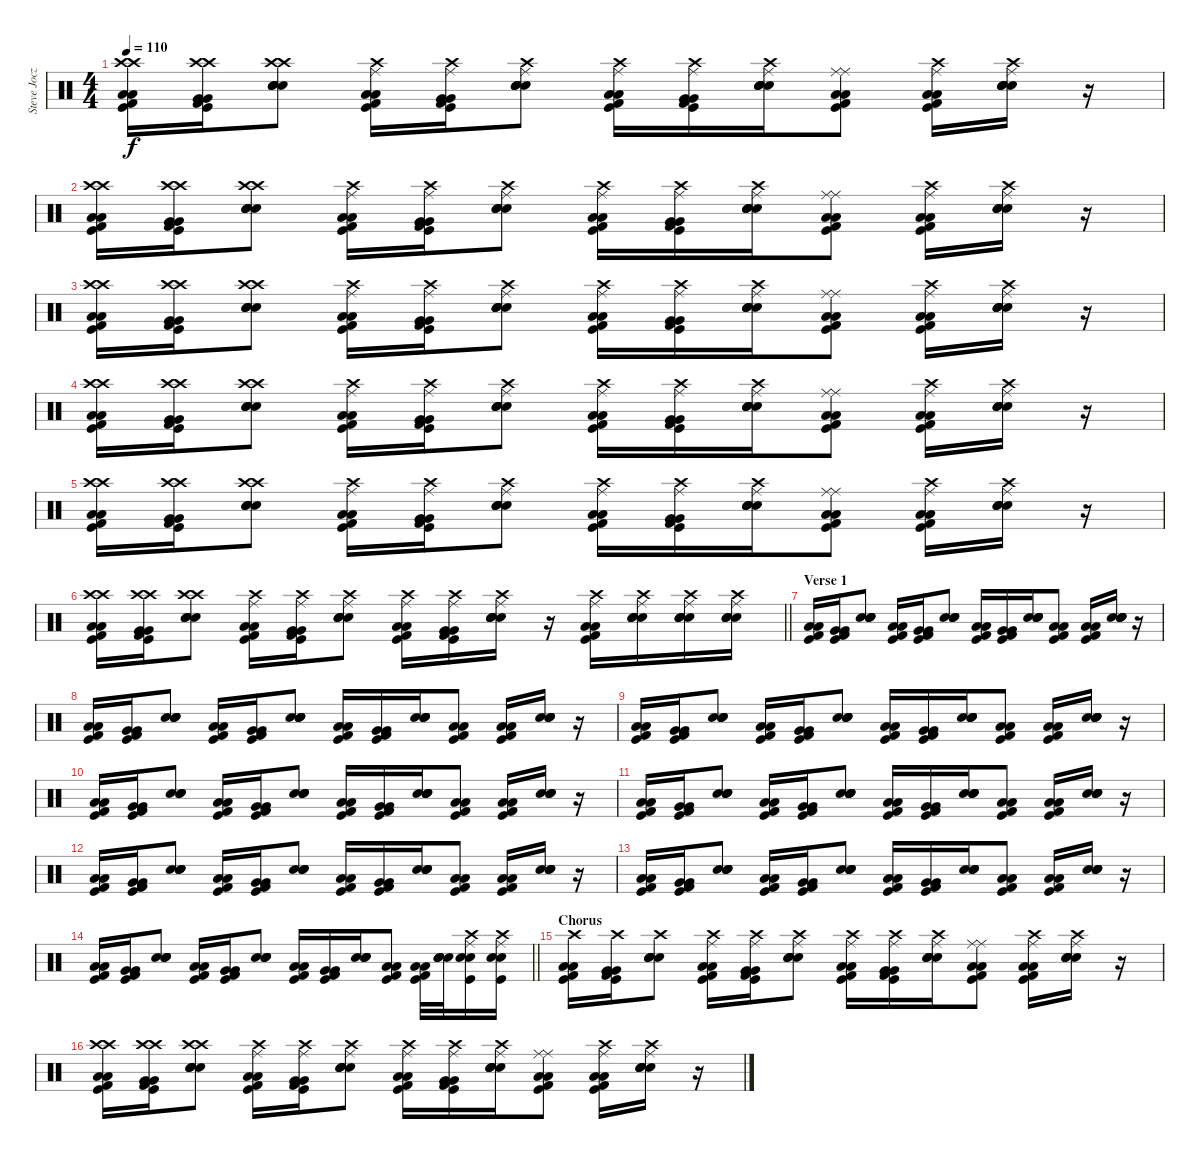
\track ("Steve Jocz" "Steve Jocz") {instrument percussion}
\staff {score}
\articulation defaults
\ts (4 4)
\tempo 110
\clef neutral
\ks c
("Low Floor Tom (hit)" "Crash high (hit)" "Low Floor Tom (hit)" "Kick (hit)" "Crash high (hit)" "Kick (hit) 2").16{dy f} ("Very Low Tom (hit)" "Crash high (hit)" "Very Low Tom (hit)" "Kick (hit)" "Crash high (hit)" "Kick (hit) 2").16 ("Snare (hit) 2" "Crash high (hit)" "Snare (hit) 2" "Electric Snare (hit)" "Crash high (hit)" "Electric Snare (hit)").8 ("Low Floor Tom (hit)" "Ride (middle)" "Low Floor Tom (hit)" "Kick (hit)" "Crash high (hit)" "Kick (hit) 2").16 ("Very Low Tom (hit)" "Ride (middle)" "Very Low Tom (hit)" "Kick (hit)" "Crash high (hit)" "Kick (hit) 2").16 ("Snare (hit) 2" "Ride (middle)" "Snare (hit) 2" "Electric Snare (hit)" "Crash high (hit)" "Electric Snare (hit)").8 ("Low Floor Tom (hit)" "Ride (middle)" "Low Floor Tom (hit)" "Kick (hit)" "Crash high (hit)" "Kick (hit) 2").16 ("Very Low Tom (hit)" "Ride (middle)" "Very Low Tom (hit)" "Kick (hit)" "Crash high (hit)" "Kick (hit) 2").16 ("Snare (hit) 2" "Ride (middle)" "Snare (hit) 2" "Electric Snare (hit)" "Crash high (hit)" "Electric Snare (hit)").16 ("Low Floor Tom (hit)" "Ride (middle)" "Low Floor Tom (hit)" "Kick (hit)" "Ride (middle)" "Kick (hit) 2").8 ("Low Floor Tom (hit)" "Ride (middle)" "Low Floor Tom (hit)" "Kick (hit)" "Crash high (hit)" "Kick (hit) 2").16 ("Snare (hit) 2" "Ride (middle)" "Snare (hit) 2" "Electric Snare (hit)" "Crash high (hit)" "Electric Snare (hit)").16 r.16 |
("Low Floor Tom (hit)" "Crash high (hit)" "Low Floor Tom (hit)" "Kick (hit)" "Crash high (hit)" "Kick (hit) 2").16 ("Very Low Tom (hit)" "Crash high (hit)" "Very Low Tom (hit)" "Kick (hit)" "Crash high (hit)" "Kick (hit) 2").16 ("Snare (hit) 2" "Crash high (hit)" "Snare (hit) 2" "Electric Snare (hit)" "Crash high (hit)" "Electric Snare (hit)").8 ("Low Floor Tom (hit)" "Ride (middle)" "Low Floor Tom (hit)" "Kick (hit)" "Crash high (hit)" "Kick (hit) 2").16 ("Very Low Tom (hit)" "Ride (middle)" "Very Low Tom (hit)" "Kick (hit)" "Crash high (hit)" "Kick (hit) 2").16 ("Snare (hit) 2" "Ride (middle)" "Snare (hit) 2" "Electric Snare (hit)" "Crash high (hit)" "Electric Snare (hit)").8 ("Low Floor Tom (hit)" "Ride (middle)" "Low Floor Tom (hit)" "Kick (hit)" "Crash high (hit)" "Kick (hit) 2").16 ("Very Low Tom (hit)" "Ride (middle)" "Very Low Tom (hit)" "Kick (hit)" "Crash high (hit)" "Kick (hit) 2").16 ("Snare (hit) 2" "Ride (middle)" "Snare (hit) 2" "Electric Snare (hit)" "Crash high (hit)" "Electric Snare (hit)").16 ("Low Floor Tom (hit)" "Ride (middle)" "Low Floor Tom (hit)" "Kick (hit)" "Ride (middle)" "Kick (hit) 2").8 ("Low Floor Tom (hit)" "Ride (middle)" "Low Floor Tom (hit)" "Kick (hit)" "Crash high (hit)" "Kick (hit) 2").16 ("Snare (hit) 2" "Ride (middle)" "Snare (hit) 2" "Electric Snare (hit)" "Crash high (hit)" "Electric Snare (hit)").16 r.16 |
("Low Floor Tom (hit)" "Crash high (hit)" "Low Floor Tom (hit)" "Kick (hit)" "Crash high (hit)" "Kick (hit) 2").16 ("Very Low Tom (hit)" "Crash high (hit)" "Very Low Tom (hit)" "Kick (hit)" "Crash high (hit)" "Kick (hit) 2").16 ("Snare (hit) 2" "Crash high (hit)" "Snare (hit) 2" "Electric Snare (hit)" "Crash high (hit)" "Electric Snare (hit)").8 ("Low Floor Tom (hit)" "Ride (middle)" "Low Floor Tom (hit)" "Kick (hit)" "Crash high (hit)" "Kick (hit) 2").16 ("Very Low Tom (hit)" "Ride (middle)" "Very Low Tom (hit)" "Kick (hit)" "Crash high (hit)" "Kick (hit) 2").16 ("Snare (hit) 2" "Ride (middle)" "Snare (hit) 2" "Electric Snare (hit)" "Crash high (hit)" "Electric Snare (hit)").8 ("Low Floor Tom (hit)" "Ride (middle)" "Low Floor Tom (hit)" "Kick (hit)" "Crash high (hit)" "Kick (hit) 2").16 ("Very Low Tom (hit)" "Ride (middle)" "Very Low Tom (hit)" "Kick (hit)" "Crash high (hit)" "Kick (hit) 2").16 ("Snare (hit) 2" "Ride (middle)" "Snare (hit) 2" "Electric Snare (hit)" "Crash high (hit)" "Electric Snare (hit)").16 ("Low Floor Tom (hit)" "Ride (middle)" "Low Floor Tom (hit)" "Kick (hit)" "Ride (middle)" "Kick (hit) 2").8 ("Low Floor Tom (hit)" "Ride (middle)" "Low Floor Tom (hit)" "Kick (hit)" "Crash high (hit)" "Kick (hit) 2").16 ("Snare (hit) 2" "Ride (middle)" "Snare (hit) 2" "Electric Snare (hit)" "Crash high (hit)" "Electric Snare (hit)").16 r.16 |
("Low Floor Tom (hit)" "Crash high (hit)" "Low Floor Tom (hit)" "Kick (hit)" "Crash high (hit)" "Kick (hit) 2").16 ("Very Low Tom (hit)" "Crash high (hit)" "Very Low Tom (hit)" "Kick (hit)" "Crash high (hit)" "Kick (hit) 2").16 ("Snare (hit) 2" "Crash high (hit)" "Snare (hit) 2" "Electric Snare (hit)" "Crash high (hit)" "Electric Snare (hit)").8 ("Low Floor Tom (hit)" "Ride (middle)" "Low Floor Tom (hit)" "Kick (hit)" "Crash high (hit)" "Kick (hit) 2").16 ("Very Low Tom (hit)" "Ride (middle)" "Very Low Tom (hit)" "Kick (hit)" "Crash high (hit)" "Kick (hit) 2").16 ("Snare (hit) 2" "Ride (middle)" "Snare (hit) 2" "Electric Snare (hit)" "Crash high (hit)" "Electric Snare (hit)").8 ("Low Floor Tom (hit)" "Ride (middle)" "Low Floor Tom (hit)" "Kick (hit)" "Crash high (hit)" "Kick (hit) 2").16 ("Very Low Tom (hit)" "Ride (middle)" "Very Low Tom (hit)" "Kick (hit)" "Crash high (hit)" "Kick (hit) 2").16 ("Snare (hit) 2" "Ride (middle)" "Snare (hit) 2" "Electric Snare (hit)" "Crash high (hit)" "Electric Snare (hit)").16 ("Low Floor Tom (hit)" "Ride (middle)" "Low Floor Tom (hit)" "Kick (hit)" "Ride (middle)" "Kick (hit) 2").8 ("Low Floor Tom (hit)" "Ride (middle)" "Low Floor Tom (hit)" "Kick (hit)" "Crash high (hit)" "Kick (hit) 2").16 ("Snare (hit) 2" "Ride (middle)" "Snare (hit) 2" "Electric Snare (hit)" "Crash high (hit)" "Electric Snare (hit)").16 r.16 |
("Low Floor Tom (hit)" "Crash high (hit)" "Low Floor Tom (hit)" "Kick (hit)" "Crash high (hit)" "Kick (hit) 2").16 ("Very Low Tom (hit)" "Crash high (hit)" "Very Low Tom (hit)" "Kick (hit)" "Crash high (hit)" "Kick (hit) 2").16 ("Snare (hit) 2" "Crash high (hit)" "Snare (hit) 2" "Electric Snare (hit)" "Crash high (hit)" "Electric Snare (hit)").8 ("Low Floor Tom (hit)" "Ride (middle)" "Low Floor Tom (hit)" "Kick (hit)" "Crash high (hit)" "Kick (hit) 2").16 ("Very Low Tom (hit)" "Ride (middle)" "Very Low Tom (hit)" "Kick (hit)" "Crash high (hit)" "Kick (hit) 2").16 ("Snare (hit) 2" "Ride (middle)" "Snare (hit) 2" "Electric Snare (hit)" "Crash high (hit)" "Electric Snare (hit)").8 ("Low Floor Tom (hit)" "Ride (middle)" "Low Floor Tom (hit)" "Kick (hit)" "Crash high (hit)" "Kick (hit) 2").16 ("Very Low Tom (hit)" "Ride (middle)" "Very Low Tom (hit)" "Kick (hit)" "Crash high (hit)" "Kick (hit) 2").16 ("Snare (hit) 2" "Ride (middle)" "Snare (hit) 2" "Electric Snare (hit)" "Crash high (hit)" "Electric Snare (hit)").16 ("Low Floor Tom (hit)" "Ride (middle)" "Low Floor Tom (hit)" "Kick (hit)" "Ride (middle)" "Kick (hit) 2").8 ("Low Floor Tom (hit)" "Ride (middle)" "Low Floor Tom (hit)" "Kick (hit)" "Crash high (hit)" "Kick (hit) 2").16 ("Snare (hit) 2" "Ride (middle)" "Snare (hit) 2" "Electric Snare (hit)" "Crash high (hit)" "Electric Snare (hit)").16 r.16 |
\barLineRight lightlight
("Low Floor Tom (hit)" "Crash high (hit)" "Low Floor Tom (hit)" "Kick (hit)" "Crash high (hit)" "Kick (hit) 2").16 ("Very Low Tom (hit)" "Crash high (hit)" "Very Low Tom (hit)" "Kick (hit)" "Crash high (hit)" "Kick (hit) 2").16 ("Snare (hit) 2" "Crash high (hit)" "Snare (hit) 2" "Electric Snare (hit)" "Crash high (hit)" "Electric Snare (hit)").8 ("Low Floor Tom (hit)" "Ride (middle)" "Low Floor Tom (hit)" "Kick (hit)" "Crash high (hit)" "Kick (hit) 2").16 ("Very Low Tom (hit)" "Ride (middle)" "Very Low Tom (hit)" "Kick (hit)" "Crash high (hit)" "Kick (hit) 2").16 ("Snare (hit) 2" "Ride (middle)" "Snare (hit) 2" "Electric Snare (hit)" "Crash high (hit)" "Electric Snare (hit)").8 ("Low Floor Tom (hit)" "Ride (middle)" "Low Floor Tom (hit)" "Kick (hit)" "Crash high (hit)" "Kick (hit) 2").16 ("Very Low Tom (hit)" "Ride (middle)" "Very Low Tom (hit)" "Kick (hit)" "Crash high (hit)" "Kick (hit) 2").16 ("Snare (hit) 2" "Ride (middle)" "Snare (hit) 2" "Electric Snare (hit)" "Crash high (hit)" "Electric Snare (hit)").16 r.16 ("Low Floor Tom (hit)" "Ride (middle)" "Low Floor Tom (hit)" "Kick (hit)" "Crash high (hit)" "Kick (hit) 2").16 ("Snare (hit) 2" "Ride (middle)" "Snare (hit) 2" "Electric Snare (hit)" "Crash high (hit)" "Electric Snare (hit)").16 ("Snare (hit) 2" "Ride (middle)" "Snare (hit) 2" "Electric Snare (hit)" "Crash high (hit)" "Electric Snare (hit)").16 ("Snare (hit) 2" "Ride (middle)" "Snare (hit) 2" "Electric Snare (hit)" "Crash high (hit)" "Electric Snare (hit)").16 |
\section ("" "Verse 1")
("Low Floor Tom (hit)" "Low Floor Tom (hit)" "Kick (hit)" "Kick (hit) 2").16 ("Very Low Tom (hit)" "Very Low Tom (hit)" "Kick (hit)" "Kick (hit) 2").16 ("Snare (hit) 2" "Snare (hit) 2" "Electric Snare (hit)" "Electric Snare (hit)").8 ("Low Floor Tom (hit)" "Low Floor Tom (hit)" "Kick (hit)" "Kick (hit) 2").16 ("Very Low Tom (hit)" "Very Low Tom (hit)" "Kick (hit)" "Kick (hit) 2").16 ("Snare (hit) 2" "Snare (hit) 2" "Electric Snare (hit)" "Electric Snare (hit)").8 ("Low Floor Tom (hit)" "Low Floor Tom (hit)" "Kick (hit)" "Kick (hit) 2").16 ("Very Low Tom (hit)" "Very Low Tom (hit)" "Kick (hit)" "Kick (hit) 2").16 ("Snare (hit) 2" "Snare (hit) 2" "Electric Snare (hit)" "Electric Snare (hit)").16 ("Low Floor Tom (hit)" "Low Floor Tom (hit)" "Kick (hit)" "Kick (hit) 2").8 ("Low Floor Tom (hit)" "Low Floor Tom (hit)" "Kick (hit)" "Kick (hit) 2").16 ("Snare (hit) 2" "Snare (hit) 2" "Electric Snare (hit)" "Electric Snare (hit)").16 r.16 |
("Low Floor Tom (hit)" "Low Floor Tom (hit)" "Kick (hit)" "Kick (hit) 2").16 ("Very Low Tom (hit)" "Very Low Tom (hit)" "Kick (hit)" "Kick (hit) 2").16 ("Snare (hit) 2" "Snare (hit) 2" "Electric Snare (hit)" "Electric Snare (hit)").8 ("Low Floor Tom (hit)" "Low Floor Tom (hit)" "Kick (hit)" "Kick (hit) 2").16 ("Very Low Tom (hit)" "Very Low Tom (hit)" "Kick (hit)" "Kick (hit) 2").16 ("Snare (hit) 2" "Snare (hit) 2" "Electric Snare (hit)" "Electric Snare (hit)").8 ("Low Floor Tom (hit)" "Low Floor Tom (hit)" "Kick (hit)" "Kick (hit) 2").16 ("Very Low Tom (hit)" "Very Low Tom (hit)" "Kick (hit)" "Kick (hit) 2").16 ("Snare (hit) 2" "Snare (hit) 2" "Electric Snare (hit)" "Electric Snare (hit)").16 ("Low Floor Tom (hit)" "Low Floor Tom (hit)" "Kick (hit)" "Kick (hit) 2").8 ("Low Floor Tom (hit)" "Low Floor Tom (hit)" "Kick (hit)" "Kick (hit) 2").16 ("Snare (hit) 2" "Snare (hit) 2" "Electric Snare (hit)" "Electric Snare (hit)").16 r.16 |
("Low Floor Tom (hit)" "Low Floor Tom (hit)" "Kick (hit)" "Kick (hit) 2").16 ("Very Low Tom (hit)" "Very Low Tom (hit)" "Kick (hit)" "Kick (hit) 2").16 ("Snare (hit) 2" "Snare (hit) 2" "Electric Snare (hit)" "Electric Snare (hit)").8 ("Low Floor Tom (hit)" "Low Floor Tom (hit)" "Kick (hit)" "Kick (hit) 2").16 ("Very Low Tom (hit)" "Very Low Tom (hit)" "Kick (hit)" "Kick (hit) 2").16 ("Snare (hit) 2" "Snare (hit) 2" "Electric Snare (hit)" "Electric Snare (hit)").8 ("Low Floor Tom (hit)" "Low Floor Tom (hit)" "Kick (hit)" "Kick (hit) 2").16 ("Very Low Tom (hit)" "Very Low Tom (hit)" "Kick (hit)" "Kick (hit) 2").16 ("Snare (hit) 2" "Snare (hit) 2" "Electric Snare (hit)" "Electric Snare (hit)").16 ("Low Floor Tom (hit)" "Low Floor Tom (hit)" "Kick (hit)" "Kick (hit) 2").8 ("Low Floor Tom (hit)" "Low Floor Tom (hit)" "Kick (hit)" "Kick (hit) 2").16 ("Snare (hit) 2" "Snare (hit) 2" "Electric Snare (hit)" "Electric Snare (hit)").16 r.16 |
("Low Floor Tom (hit)" "Low Floor Tom (hit)" "Kick (hit)" "Kick (hit) 2").16 ("Very Low Tom (hit)" "Very Low Tom (hit)" "Kick (hit)" "Kick (hit) 2").16 ("Snare (hit) 2" "Snare (hit) 2" "Electric Snare (hit)" "Electric Snare (hit)").8 ("Low Floor Tom (hit)" "Low Floor Tom (hit)" "Kick (hit)" "Kick (hit) 2").16 ("Very Low Tom (hit)" "Very Low Tom (hit)" "Kick (hit)" "Kick (hit) 2").16 ("Snare (hit) 2" "Snare (hit) 2" "Electric Snare (hit)" "Electric Snare (hit)").8 ("Low Floor Tom (hit)" "Low Floor Tom (hit)" "Kick (hit)" "Kick (hit) 2").16 ("Very Low Tom (hit)" "Very Low Tom (hit)" "Kick (hit)" "Kick (hit) 2").16 ("Snare (hit) 2" "Snare (hit) 2" "Electric Snare (hit)" "Electric Snare (hit)").16 ("Low Floor Tom (hit)" "Low Floor Tom (hit)" "Kick (hit)" "Kick (hit) 2").8 ("Low Floor Tom (hit)" "Low Floor Tom (hit)" "Kick (hit)" "Kick (hit) 2").16 ("Snare (hit) 2" "Snare (hit) 2" "Electric Snare (hit)" "Electric Snare (hit)").16 r.16 |
("Low Floor Tom (hit)" "Low Floor Tom (hit)" "Kick (hit)" "Kick (hit) 2").16 ("Very Low Tom (hit)" "Very Low Tom (hit)" "Kick (hit)" "Kick (hit) 2").16 ("Snare (hit) 2" "Snare (hit) 2" "Electric Snare (hit)" "Electric Snare (hit)").8 ("Low Floor Tom (hit)" "Low Floor Tom (hit)" "Kick (hit)" "Kick (hit) 2").16 ("Very Low Tom (hit)" "Very Low Tom (hit)" "Kick (hit)" "Kick (hit) 2").16 ("Snare (hit) 2" "Snare (hit) 2" "Electric Snare (hit)" "Electric Snare (hit)").8 ("Low Floor Tom (hit)" "Low Floor Tom (hit)" "Kick (hit)" "Kick (hit) 2").16 ("Very Low Tom (hit)" "Very Low Tom (hit)" "Kick (hit)" "Kick (hit) 2").16 ("Snare (hit) 2" "Snare (hit) 2" "Electric Snare (hit)" "Electric Snare (hit)").16 ("Low Floor Tom (hit)" "Low Floor Tom (hit)" "Kick (hit)" "Kick (hit) 2").8 ("Low Floor Tom (hit)" "Low Floor Tom (hit)" "Kick (hit)" "Kick (hit) 2").16 ("Snare (hit) 2" "Snare (hit) 2" "Electric Snare (hit)" "Electric Snare (hit)").16 r.16 |
("Low Floor Tom (hit)" "Low Floor Tom (hit)" "Kick (hit)" "Kick (hit) 2").16 ("Very Low Tom (hit)" "Very Low Tom (hit)" "Kick (hit)" "Kick (hit) 2").16 ("Snare (hit) 2" "Snare (hit) 2" "Electric Snare (hit)" "Electric Snare (hit)").8 ("Low Floor Tom (hit)" "Low Floor Tom (hit)" "Kick (hit)" "Kick (hit) 2").16 ("Very Low Tom (hit)" "Very Low Tom (hit)" "Kick (hit)" "Kick (hit) 2").16 ("Snare (hit) 2" "Snare (hit) 2" "Electric Snare (hit)" "Electric Snare (hit)").8 ("Low Floor Tom (hit)" "Low Floor Tom (hit)" "Kick (hit)" "Kick (hit) 2").16 ("Very Low Tom (hit)" "Very Low Tom (hit)" "Kick (hit)" "Kick (hit) 2").16 ("Snare (hit) 2" "Snare (hit) 2" "Electric Snare (hit)" "Electric Snare (hit)").16 ("Low Floor Tom (hit)" "Low Floor Tom (hit)" "Kick (hit)" "Kick (hit) 2").8 ("Low Floor Tom (hit)" "Low Floor Tom (hit)" "Kick (hit)" "Kick (hit) 2").16 ("Snare (hit) 2" "Snare (hit) 2" "Electric Snare (hit)" "Electric Snare (hit)").16 r.16 |
("Low Floor Tom (hit)" "Low Floor Tom (hit)" "Kick (hit)" "Kick (hit) 2").16 ("Very Low Tom (hit)" "Very Low Tom (hit)" "Kick (hit)" "Kick (hit) 2").16 ("Snare (hit) 2" "Snare (hit) 2" "Electric Snare (hit)" "Electric Snare (hit)").8 ("Low Floor Tom (hit)" "Low Floor Tom (hit)" "Kick (hit)" "Kick (hit) 2").16 ("Very Low Tom (hit)" "Very Low Tom (hit)" "Kick (hit)" "Kick (hit) 2").16 ("Snare (hit) 2" "Snare (hit) 2" "Electric Snare (hit)" "Electric Snare (hit)").8 ("Low Floor Tom (hit)" "Low Floor Tom (hit)" "Kick (hit)" "Kick (hit) 2").16 ("Very Low Tom (hit)" "Very Low Tom (hit)" "Kick (hit)" "Kick (hit) 2").16 ("Snare (hit) 2" "Snare (hit) 2" "Electric Snare (hit)" "Electric Snare (hit)").16 ("Low Floor Tom (hit)" "Low Floor Tom (hit)" "Kick (hit)" "Kick (hit) 2").8 ("Low Floor Tom (hit)" "Low Floor Tom (hit)" "Kick (hit)" "Kick (hit) 2").16 ("Snare (hit) 2" "Snare (hit) 2" "Electric Snare (hit)" "Electric Snare (hit)").16 r.16 |
\barLineRight lightlight
("Low Floor Tom (hit)" "Low Floor Tom (hit)" "Kick (hit)" "Kick (hit) 2").16 ("Very Low Tom (hit)" "Very Low Tom (hit)" "Kick (hit)" "Kick (hit) 2").16 ("Snare (hit) 2" "Snare (hit) 2" "Electric Snare (hit)" "Electric Snare (hit)").8 ("Low Floor Tom (hit)" "Low Floor Tom (hit)" "Kick (hit)" "Kick (hit) 2").16 ("Very Low Tom (hit)" "Very Low Tom (hit)" "Kick (hit)" "Kick (hit) 2").16 ("Snare (hit) 2" "Snare (hit) 2" "Electric Snare (hit)" "Electric Snare (hit)").8 ("Low Floor Tom (hit)" "Low Floor Tom (hit)" "Kick (hit)" "Kick (hit) 2").16 ("Very Low Tom (hit)" "Very Low Tom (hit)" "Kick (hit)" "Kick (hit) 2").16 ("Snare (hit) 2" "Snare (hit) 2" "Electric Snare (hit)" "Electric Snare (hit)").16 ("Low Floor Tom (hit)" "Low Floor Tom (hit)" "Kick (hit)" "Kick (hit) 2").8 ("Low Floor Tom (hit)" "Low Floor Tom (hit)" "Kick (hit)" "Kick (hit) 2").32 ("Snare (hit) 2" "Snare (hit) 2" "Electric Snare (hit)" "Electric Snare (hit)").32 ("Snare (hit) 2" "Kick (hit)" "Electric Snare (hit)" "Crash high (hit)" "Ride (middle)").16 ("Snare (hit) 2" "Kick (hit)" "Electric Snare (hit)" "Crash high (hit)" "Ride (middle)").16 |
\section ("" "Chorus ")
("Low Floor Tom (hit)" "Crash high (hit)" "Low Floor Tom (hit)" "Kick (hit)" "Kick (hit) 2").16 ("Very Low Tom (hit)" "Crash high (hit)" "Very Low Tom (hit)" "Kick (hit)" "Kick (hit) 2").16 ("Snare (hit) 2" "Crash high (hit)" "Snare (hit) 2" "Electric Snare (hit)" "Electric Snare (hit)").8 ("Low Floor Tom (hit)" "Ride (middle)" "Low Floor Tom (hit)" "Kick (hit)" "Crash high (hit)" "Kick (hit) 2").16 ("Very Low Tom (hit)" "Ride (middle)" "Very Low Tom (hit)" "Kick (hit)" "Crash high (hit)" "Kick (hit) 2").16 ("Snare (hit) 2" "Ride (middle)" "Snare (hit) 2" "Electric Snare (hit)" "Crash high (hit)" "Electric Snare (hit)").8 ("Low Floor Tom (hit)" "Ride (middle)" "Low Floor Tom (hit)" "Kick (hit)" "Crash high (hit)" "Kick (hit) 2").16 ("Very Low Tom (hit)" "Ride (middle)" "Very Low Tom (hit)" "Kick (hit)" "Crash high (hit)" "Kick (hit) 2").16 ("Snare (hit) 2" "Ride (middle)" "Snare (hit) 2" "Electric Snare (hit)" "Crash high (hit)" "Electric Snare (hit)").16 ("Low Floor Tom (hit)" "Ride (middle)" "Low Floor Tom (hit)" "Kick (hit)" "Ride (middle)" "Kick (hit) 2").8 ("Low Floor Tom (hit)" "Ride (middle)" "Low Floor Tom (hit)" "Kick (hit)" "Crash high (hit)" "Kick (hit) 2").16 ("Snare (hit) 2" "Ride (middle)" "Snare (hit) 2" "Electric Snare (hit)" "Crash high (hit)" "Electric Snare (hit)").16 r.16 |
("Low Floor Tom (hit)" "Crash high (hit)" "Low Floor Tom (hit)" "Kick (hit)" "Crash high (hit)" "Kick (hit) 2").16 ("Very Low Tom (hit)" "Crash high (hit)" "Very Low Tom (hit)" "Kick (hit)" "Crash high (hit)" "Kick (hit) 2").16 ("Snare (hit) 2" "Crash high (hit)" "Snare (hit) 2" "Electric Snare (hit)" "Crash high (hit)" "Electric Snare (hit)").8 ("Low Floor Tom (hit)" "Ride (middle)" "Low Floor Tom (hit)" "Kick (hit)" "Crash high (hit)" "Kick (hit) 2").16 ("Very Low Tom (hit)" "Ride (middle)" "Very Low Tom (hit)" "Kick (hit)" "Crash high (hit)" "Kick (hit) 2").16 ("Snare (hit) 2" "Ride (middle)" "Snare (hit) 2" "Electric Snare (hit)" "Crash high (hit)" "Electric Snare (hit)").8 ("Low Floor Tom (hit)" "Ride (middle)" "Low Floor Tom (hit)" "Kick (hit)" "Crash high (hit)" "Kick (hit) 2").16 ("Very Low Tom (hit)" "Ride (middle)" "Very Low Tom (hit)" "Kick (hit)" "Crash high (hit)" "Kick (hit) 2").16 ("Snare (hit) 2" "Ride (middle)" "Snare (hit) 2" "Electric Snare (hit)" "Crash high (hit)" "Electric Snare (hit)").16 ("Low Floor Tom (hit)" "Ride (middle)" "Low Floor Tom (hit)" "Kick (hit)" "Ride (middle)" "Kick (hit) 2").8 ("Low Floor Tom (hit)" "Ride (middle)" "Low Floor Tom (hit)" "Kick (hit)" "Crash high (hit)" "Kick (hit) 2").16 ("Snare (hit) 2" "Ride (middle)" "Snare (hit) 2" "Electric Snare (hit)" "Crash high (hit)" "Electric Snare (hit)").16 r.16
